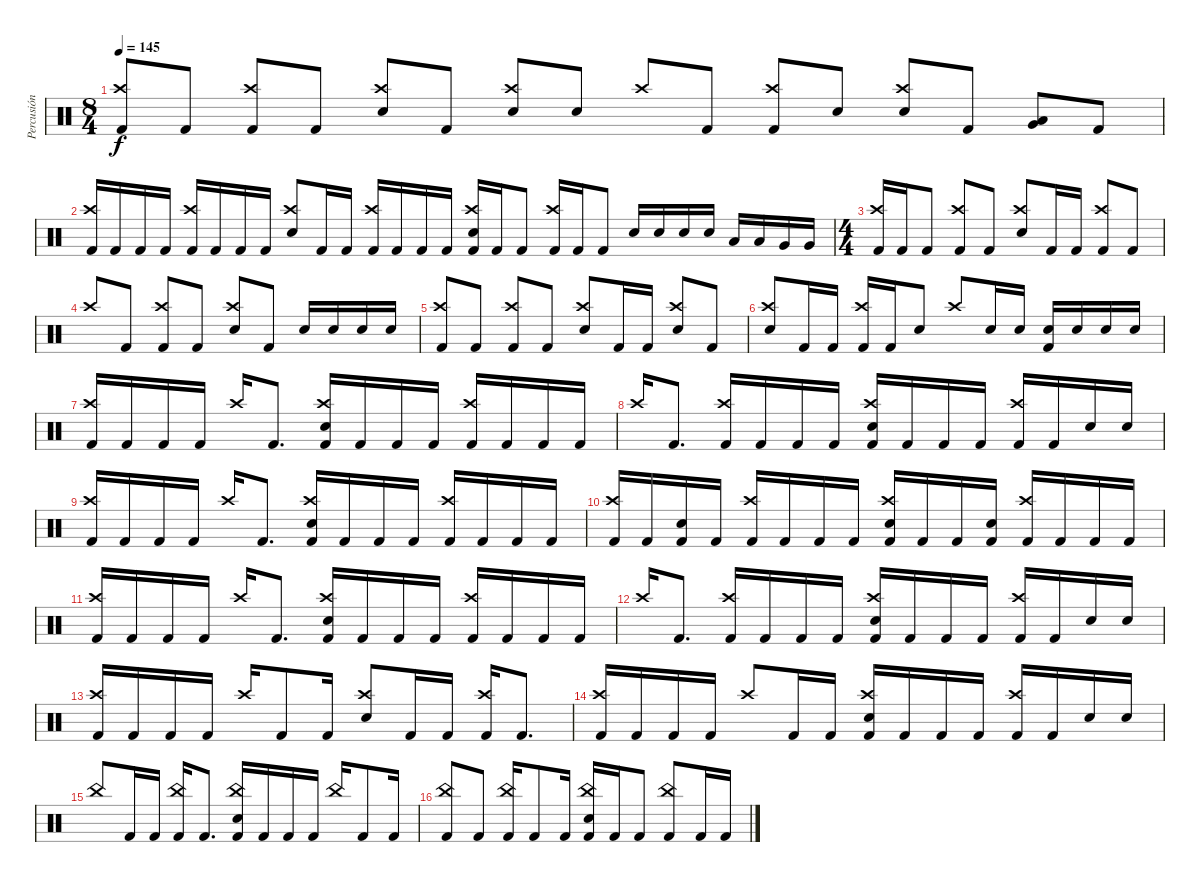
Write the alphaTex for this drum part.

\track ("Percusión" "Percusión") {instrument percussion}
\staff {score}
\articulation defaults
\ts (8 4)
\tempo 145
\clef neutral
\ks c
("Crash high (hit)" "Kick (hit) 2").8{dy f beam Up} "Kick (hit) 2".8{beam Up} ("Crash high (hit)" "Kick (hit) 2").8{beam Up} "Kick (hit) 2".8{beam Up} ("Crash high (hit)" "Electric Snare (hit)").8{beam Up} "Kick (hit) 2".8{beam Up} ("Crash high (hit)" "Electric Snare (hit)").8{beam Up} "Electric Snare (hit)".8{beam Up} "Crash high (hit)".8{beam Up} "Kick (hit) 2".8{beam Up} ("Crash high (hit)" "Kick (hit) 2").8{beam Up} "Electric Snare (hit)".8{beam Up} ("Crash high (hit)" "Electric Snare (hit)").8{beam Up} "Kick (hit) 2".8{beam Up} ("Low Tom (hit)" "Very Low Tom (hit)").8{beam Up} "Kick (hit) 2".8{beam Up} |
("Crash high (hit)" "Kick (hit) 2").16{beam Up} "Kick (hit) 2".16{beam Up} "Kick (hit) 2".16{beam Up} "Kick (hit) 2".16{beam Up} ("Crash high (hit)" "Kick (hit) 2").16{beam Up} "Kick (hit) 2".16{beam Up} "Kick (hit) 2".16{beam Up} "Kick (hit) 2".16{beam Up} ("Crash high (hit)" "Electric Snare (hit)").8{beam Up} "Kick (hit) 2".16{beam Up} "Kick (hit) 2".16{beam Up} ("Crash high (hit)" "Kick (hit) 2").16{beam Up} "Kick (hit) 2".16{beam Up} "Kick (hit) 2".16{beam Up} "Kick (hit) 2".16{beam Up} ("Crash high (hit)" "Electric Snare (hit)" "Kick (hit) 2").16{beam Up} "Kick (hit) 2".16{beam Up} "Kick (hit) 2".8{beam Up} ("Crash high (hit)" "Kick (hit) 2").16{beam Up} "Kick (hit) 2".16{beam Up} "Kick (hit) 2".8{beam Up} "Electric Snare (hit)".16{beam Up} "Electric Snare (hit)".16{beam Up} "Electric Snare (hit)".16{beam Up} "Electric Snare (hit)".16{beam Up} "Low Tom (hit)".16 "Low Tom (hit)".16 "Very Low Tom (hit)".16 "Very Low Tom (hit)".16 |
\ts (4 4)
("Crash high (hit)" "Kick (hit) 2").16{beam Up} "Kick (hit) 2".16{beam Up} "Kick (hit) 2".8{beam Up} ("Crash high (hit)" "Kick (hit) 2").8{beam Up} "Kick (hit) 2".8{beam Up} ("Crash high (hit)" "Electric Snare (hit)").8{beam Up} "Kick (hit) 2".16{beam Up} "Kick (hit) 2".16{beam Up} ("Crash high (hit)" "Kick (hit) 2").8{beam Up} "Kick (hit) 2".8{beam Up} |
"Crash high (hit)".8{beam Up} "Kick (hit) 2".8{beam Up} ("Crash high (hit)" "Kick (hit) 2").8{beam Up} "Kick (hit) 2".8{beam Up} ("Crash high (hit)" "Electric Snare (hit)").8{beam Up} "Kick (hit) 2".8{beam Up} "Electric Snare (hit)".16{beam Up} "Electric Snare (hit)".16{beam Up} "Electric Snare (hit)".16{beam Up} "Electric Snare (hit)".16{beam Up} |
("Crash high (hit)" "Kick (hit) 2").8{beam Up} "Kick (hit) 2".8{beam Up} ("Crash high (hit)" "Kick (hit) 2").8{beam Up} "Kick (hit) 2".8{beam Up} ("Crash high (hit)" "Electric Snare (hit)").8{beam Up} "Kick (hit) 2".16{beam Up} "Kick (hit) 2".16{beam Up} ("Crash high (hit)" "Electric Snare (hit)").8{beam Up} "Kick (hit) 2".8{beam Up} |
("Crash high (hit)" "Electric Snare (hit)").8{beam Up} "Kick (hit) 2".16{beam Up} "Kick (hit) 2".16{beam Up} ("Crash high (hit)" "Kick (hit) 2").16{beam Up} "Kick (hit) 2".16{beam Up} "Electric Snare (hit)".8{beam Up} "Crash high (hit)".8{beam Up} "Electric Snare (hit)".16{beam Up} "Electric Snare (hit)".16{beam Up} ("Electric Snare (hit)" "Kick (hit) 2").16{beam Up} "Electric Snare (hit)".16{beam Up} "Electric Snare (hit)".16{beam Up} "Electric Snare (hit)".16{beam Up} |
("Crash high (hit)" "Kick (hit) 2").16{beam Up} "Kick (hit) 2".16{beam Up} "Kick (hit) 2".16{beam Up} "Kick (hit) 2".16{beam Up} "Crash high (hit)".16{beam Up} "Kick (hit) 2".8{d beam Up} ("Crash high (hit)" "Electric Snare (hit)" "Kick (hit) 2").16{beam Up} "Kick (hit) 2".16{beam Up} "Kick (hit) 2".16{beam Up} "Kick (hit) 2".16{beam Up} ("Crash high (hit)" "Kick (hit) 2").16{beam Up} "Kick (hit) 2".16{beam Up} "Kick (hit) 2".16{beam Up} "Kick (hit) 2".16{beam Up} |
"Crash high (hit)".16{beam Up} "Kick (hit) 2".8{d beam Up} ("Crash high (hit)" "Kick (hit) 2").16{beam Up} "Kick (hit) 2".16{beam Up} "Kick (hit) 2".16{beam Up} "Kick (hit) 2".16{beam Up} ("Crash high (hit)" "Electric Snare (hit)" "Kick (hit) 2").16{beam Up} "Kick (hit) 2".16{beam Up} "Kick (hit) 2".16{beam Up} "Kick (hit) 2".16{beam Up} ("Crash high (hit)" "Kick (hit) 2").16{beam Up} "Kick (hit) 2".16{beam Up} "Electric Snare (hit)".16{beam Up} "Electric Snare (hit)".16{beam Up} |
("Crash high (hit)" "Kick (hit) 2").16{beam Up} "Kick (hit) 2".16{beam Up} "Kick (hit) 2".16{beam Up} "Kick (hit) 2".16{beam Up} "Crash high (hit)".16{beam Up} "Kick (hit) 2".8{d beam Up} ("Crash high (hit)" "Electric Snare (hit)" "Kick (hit) 2").16{beam Up} "Kick (hit) 2".16{beam Up} "Kick (hit) 2".16{beam Up} "Kick (hit) 2".16{beam Up} ("Crash high (hit)" "Kick (hit) 2").16{beam Up} "Kick (hit) 2".16{beam Up} "Kick (hit) 2".16{beam Up} "Kick (hit) 2".16{beam Up} |
("Crash high (hit)" "Kick (hit) 2").16{beam Up} "Kick (hit) 2".16{beam Up} ("Electric Snare (hit)" "Kick (hit) 2").16{beam Up} "Kick (hit) 2".16{beam Up} ("Crash high (hit)" "Kick (hit) 2").16{beam Up} "Kick (hit) 2".16{beam Up} "Kick (hit) 2".16{beam Up} "Kick (hit) 2".16{beam Up} ("Crash high (hit)" "Electric Snare (hit)" "Kick (hit) 2").16{beam Up} "Kick (hit) 2".16{beam Up} "Kick (hit) 2".16{beam Up} ("Electric Snare (hit)" "Kick (hit) 2").16{beam Up} ("Crash high (hit)" "Kick (hit) 2").16{beam Up} "Kick (hit) 2".16{beam Up} "Kick (hit) 2".16{beam Up} "Kick (hit) 2".16{beam Up} |
("Crash high (hit)" "Kick (hit) 2").16{beam Up} "Kick (hit) 2".16{beam Up} "Kick (hit) 2".16{beam Up} "Kick (hit) 2".16{beam Up} "Crash high (hit)".16{beam Up} "Kick (hit) 2".8{d beam Up} ("Crash high (hit)" "Electric Snare (hit)" "Kick (hit) 2").16{beam Up} "Kick (hit) 2".16{beam Up} "Kick (hit) 2".16{beam Up} "Kick (hit) 2".16{beam Up} ("Crash high (hit)" "Kick (hit) 2").16{beam Up} "Kick (hit) 2".16{beam Up} "Kick (hit) 2".16{beam Up} "Kick (hit) 2".16{beam Up} |
"Crash high (hit)".16{beam Up} "Kick (hit) 2".8{d beam Up} ("Crash high (hit)" "Kick (hit) 2").16{beam Up} "Kick (hit) 2".16{beam Up} "Kick (hit) 2".16{beam Up} "Kick (hit) 2".16{beam Up} ("Crash high (hit)" "Electric Snare (hit)" "Kick (hit) 2").16{beam Up} "Kick (hit) 2".16{beam Up} "Kick (hit) 2".16{beam Up} "Kick (hit) 2".16{beam Up} ("Crash high (hit)" "Kick (hit) 2").16{beam Up} "Kick (hit) 2".16{beam Up} "Electric Snare (hit)".16{beam Up} "Electric Snare (hit)".16{beam Up} |
("Crash high (hit)" "Kick (hit) 2").16{beam Up} "Kick (hit) 2".16{beam Up} "Kick (hit) 2".16{beam Up} "Kick (hit) 2".16{beam Up} "Crash high (hit)".16{beam Up} "Kick (hit) 2".8{beam Up} "Kick (hit) 2".16{beam Up} ("Crash high (hit)" "Electric Snare (hit)").8{beam Up} "Kick (hit) 2".16{beam Up} "Kick (hit) 2".16{beam Up} ("Crash high (hit)" "Kick (hit) 2").16{beam Up} "Kick (hit) 2".8{d beam Up} |
("Crash high (hit)" "Kick (hit) 2").16{beam Up} "Kick (hit) 2".16{beam Up} "Kick (hit) 2".16{beam Up} "Kick (hit) 2".16{beam Up} "Crash high (hit)".8{beam Up} "Kick (hit) 2".16{beam Up} "Kick (hit) 2".16{beam Up} ("Crash high (hit)" "Electric Snare (hit)" "Kick (hit) 2").16{beam Up} "Kick (hit) 2".16{beam Up} "Kick (hit) 2".16{beam Up} "Kick (hit) 2".16{beam Up} ("Crash high (hit)" "Kick (hit) 2").16{beam Up} "Kick (hit) 2".16{beam Up} "Electric Snare (hit)".16{beam Up} "Electric Snare (hit)".16{beam Up} |
"China (hit)".8{beam Up} "Kick (hit) 2".16{beam Up} "Kick (hit) 2".16{beam Up} ("China (hit)" "Kick (hit) 2").16{beam Up} "Kick (hit) 2".8{d beam Up} ("China (hit)" "Electric Snare (hit)" "Kick (hit) 2").16{beam Up} "Kick (hit) 2".16{beam Up} "Kick (hit) 2".16{beam Up} "Kick (hit) 2".16{beam Up} "China (hit)".16{beam Up} "Kick (hit) 2".8{beam Up} "Kick (hit) 2".16{beam Up} |
("China (hit)" "Kick (hit) 2").8{beam Up} "Kick (hit) 2".8{beam Up} ("China (hit)" "Kick (hit) 2").16{beam Up} "Kick (hit) 2".8{beam Up} "Kick (hit) 2".16{beam Up} ("China (hit)" "Electric Snare (hit)" "Kick (hit) 2").16{beam Up} "Kick (hit) 2".16{beam Up} "Kick (hit) 2".8{beam Up} ("China (hit)" "Kick (hit) 2").8{beam Up} "Kick (hit) 2".16{beam Up} "Kick (hit) 2".16{beam Up}
